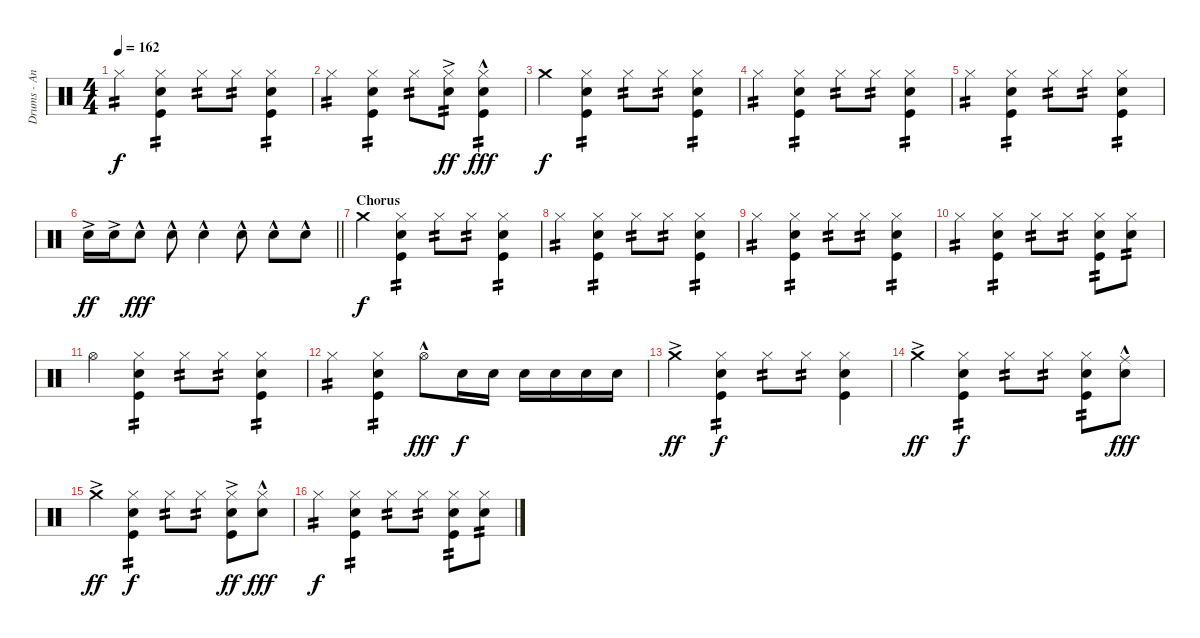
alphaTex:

\track ("Drums - Andriushkin" "Drums - An") {instrument percussion}
\staff {score}
\articulation defaults
\ts (4 4)
\tempo 162
\clef neutral
\ks c "Hi-Hat (closed)".4{tp 2 dy f}
("Hi-Hat (closed)" "Electric Snare (hit)" "Kick (hit)").4{tp 2} "Hi-Hat (closed)".8{tp 2} "Hi-Hat (closed)".8{tp 2} ("Hi-Hat (closed)" "Electric Snare (hit)" "Kick (hit)").4{tp 2} |
"Hi-Hat (closed)".4{tp 2} ("Hi-Hat (closed)" "Electric Snare (hit)" "Kick (hit)").4{tp 2} "Hi-Hat (closed)".8{tp 2} ("Hi-Hat (closed)" "Electric Snare (hit)"{ac}).8{tp 2 dy ff} ("Hi-Hat (closed)" "Electric Snare (hit)"{hac} "Kick (hit)").4{tp 2 dy fff} |
"Crash medium (hit)".4{dy f} ("Hi-Hat (closed)" "Electric Snare (hit)" "Kick (hit)").4{tp 2} "Hi-Hat (closed)".8{tp 2} "Hi-Hat (closed)".8{tp 2} ("Hi-Hat (closed)" "Electric Snare (hit)" "Kick (hit)").4{tp 2} |
"Hi-Hat (closed)".4{tp 2} ("Hi-Hat (closed)" "Electric Snare (hit)" "Kick (hit)").4{tp 2} "Hi-Hat (closed)".8{tp 2} "Hi-Hat (closed)".8{tp 2} ("Hi-Hat (closed)" "Electric Snare (hit)" "Kick (hit)").4{tp 2} |
"Hi-Hat (closed)".4{tp 2} ("Hi-Hat (closed)" "Electric Snare (hit)" "Kick (hit)").4{tp 2} "Hi-Hat (closed)".8{tp 2} "Hi-Hat (closed)".8{tp 2} ("Hi-Hat (closed)" "Electric Snare (hit)" "Kick (hit)").4{tp 2} |
\barLineRight lightlight "Electric Snare (hit)"{ac}.16{dy ff} "Electric Snare (hit)"{ac}.16 "Electric Snare (hit)"{hac}.8{dy fff} "Electric Snare (hit)"{hac}.8 "Electric Snare (hit)"{hac}.4 "Electric Snare (hit)"{hac}.8 "Electric Snare (hit)"{hac}.8 "Electric Snare (hit)"{hac}.8
|
\section ("" "Chorus")
"Crash medium (hit)".4{dy f} ("Hi-Hat (closed)" "Electric Snare (hit)" "Kick (hit)").4{tp 2} "Hi-Hat (closed)".8{tp 2} "Hi-Hat (closed)".8{tp 2} ("Hi-Hat (closed)" "Electric Snare (hit)" "Kick (hit)").4{tp 2} |
"Hi-Hat (closed)".4{tp 2} ("Hi-Hat (closed)" "Electric Snare (hit)" "Kick (hit)").4{tp 2} "Hi-Hat (closed)".8{tp 2} "Hi-Hat (closed)".8{tp 2} ("Hi-Hat (closed)" "Electric Snare (hit)" "Kick (hit)").4{tp 2} |
"Hi-Hat (closed)".4{tp 2} ("Hi-Hat (closed)" "Electric Snare (hit)" "Kick (hit)").4{tp 2} "Hi-Hat (closed)".8{tp 2} "Hi-Hat (closed)".8{tp 2} ("Hi-Hat (closed)" "Electric Snare (hit)" "Kick (hit)").4{tp 2} |
"Hi-Hat (closed)".4{tp 2} ("Hi-Hat (closed)" "Electric Snare (hit)" "Kick (hit)").4{tp 2} "Hi-Hat (closed)".8{tp 2} "Hi-Hat (closed)".8{tp 2} ("Hi-Hat (closed)" "Electric Snare (hit)" "Kick (hit)").8{tp 2} ("Hi-Hat (closed)" "Electric Snare (hit)").8{tp 2} |
"Hi-Hat (open)".4 ("Hi-Hat (closed)" "Electric Snare (hit)" "Kick (hit)").4{tp 2} "Hi-Hat (closed)".8{tp 2} "Hi-Hat (closed)".8{tp 2} ("Hi-Hat (closed)" "Electric Snare (hit)" "Kick (hit)").4{tp 2} |
"Hi-Hat (closed)".4{tp 2} ("Hi-Hat (closed)" "Electric Snare (hit)" "Kick (hit)").4{tp 2} "Hi-Hat (open)"{hac}.8{dy fff} "Electric Snare (hit)".16{dy f} "Electric Snare (hit)".16 "Electric Snare (hit)".16 "Electric Snare (hit)".16 "Electric Snare (hit)".16 "Electric Snare (hit)".16 |
"Crash medium (hit)"{ac}.4{dy ff} ("Hi-Hat (closed)" "Electric Snare (hit)" "Kick (hit)").4{tp 2 dy f} "Hi-Hat (closed)".8{tp 2} "Hi-Hat (closed)".8{tp 2} ("Hi-Hat (closed)" "Electric Snare (hit)" "Kick (hit)").4 |
"Crash medium (hit)"{ac}.4{dy ff} ("Hi-Hat (closed)" "Electric Snare (hit)" "Kick (hit)").4{tp 2 dy f} "Hi-Hat (closed)".8{tp 2} "Hi-Hat (closed)".8{tp 2} ("Hi-Hat (closed)" "Electric Snare (hit)" "Kick (hit)").8{tp 2} ("Ride (middle)"{hac} "Electric Snare (hit)").8{dy fff} |
"Crash medium (hit)"{ac}.4{dy ff} ("Hi-Hat (closed)" "Electric Snare (hit)" "Kick (hit)").4{tp 2 dy f} "Hi-Hat (closed)".8{tp 2} "Hi-Hat (closed)".8{tp 2} ("Hi-Hat (closed)" "Electric Snare (hit)"{ac} "Kick (hit)").8{dy ff} ("Hi-Hat (closed)" "Electric Snare (hit)"{hac}).8{dy fff} |
"Hi-Hat (closed)".4{tp 2 dy f} ("Hi-Hat (closed)" "Electric Snare (hit)" "Kick (hit)").4{tp 2} "Hi-Hat (closed)".8{tp 2} "Hi-Hat (closed)".8{tp 2} ("Hi-Hat (closed)" "Electric Snare (hit)" "Kick (hit)").8{tp 2} ("Hi-Hat (closed)" "Electric Snare (hit)").8{tp 2}
